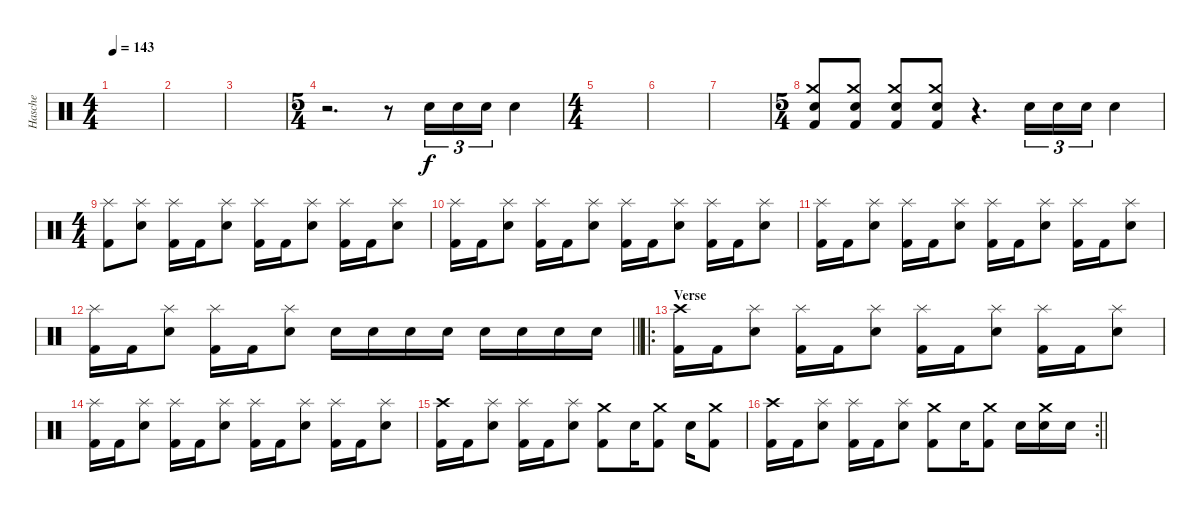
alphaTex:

\track ("Hasche" "Hasche") {instrument percussion}
\staff {score}
\articulation defaults
\ts (4 4)
\tempo 143
\clef neutral
\ks c
|
|
|
\ts (5 4)
r.2{d} r.8 "Snare (hit) 2".16{tu (3 2)} "Snare (hit) 2".16{tu (3 2)} "Snare (hit) 2".16{tu (3 2)} "Snare (hit) 2".4 |
\ts (4 4)
|
|
|
\ts (5 4)
("Crash medium (hit)" "Snare (hit) 2" "Kick (hit) 2").8 ("Crash medium (hit)" "Snare (hit) 2" "Kick (hit) 2").8 ("Crash medium (hit)" "Snare (hit) 2" "Kick (hit) 2").8 ("Crash medium (hit)" "Snare (hit) 2" "Kick (hit) 2").8 r.4{d} "Snare (hit) 2".16{tu (3 2)} "Snare (hit) 2".16{tu (3 2)} "Snare (hit) 2".16{tu (3 2)} "Snare (hit) 2".4 |
\ts (4 4)
("Splash (hit)" "Kick (hit) 2").8 ("Splash (hit)" "Snare (hit) 2").8 ("Splash (hit)" "Kick (hit) 2").16 "Kick (hit) 2".16 ("Splash (hit)" "Snare (hit) 2").8 ("Splash (hit)" "Kick (hit) 2").16 "Kick (hit) 2".16 ("Splash (hit)" "Snare (hit) 2").8 ("Splash (hit)" "Kick (hit) 2").16 "Kick (hit) 2".16 ("Splash (hit)" "Snare (hit) 2").8 |
("Splash (hit)" "Kick (hit) 2").16 "Kick (hit) 2".16 ("Splash (hit)" "Snare (hit) 2").8 ("Splash (hit)" "Kick (hit) 2").16 "Kick (hit) 2".16 ("Splash (hit)" "Snare (hit) 2").8 ("Splash (hit)" "Kick (hit) 2").16 "Kick (hit) 2".16 ("Splash (hit)" "Snare (hit) 2").8 ("Splash (hit)" "Kick (hit) 2").16 "Kick (hit) 2".16 ("Splash (hit)" "Snare (hit) 2").8 |
("Splash (hit)" "Kick (hit) 2").16 "Kick (hit) 2".16 ("Splash (hit)" "Snare (hit) 2").8 ("Splash (hit)" "Kick (hit) 2").16 "Kick (hit) 2".16 ("Splash (hit)" "Snare (hit) 2").8 ("Splash (hit)" "Kick (hit) 2").16 "Kick (hit) 2".16 ("Splash (hit)" "Snare (hit) 2").8 ("Splash (hit)" "Kick (hit) 2").16 "Kick (hit) 2".16 ("Splash (hit)" "Snare (hit) 2").8 |
\barLineRight lightlight
("Splash (hit)" "Kick (hit) 2").16 "Kick (hit) 2".16 ("Splash (hit)" "Snare (hit) 2").8 ("Splash (hit)" "Kick (hit) 2").16 "Kick (hit) 2".16 ("Splash (hit)" "Snare (hit) 2").8 "Snare (hit) 2".16 "Snare (hit) 2".16 "Snare (hit) 2".16 "Snare (hit) 2".16 "Snare (hit) 2".16 "Snare (hit) 2".16 "Snare (hit) 2".16 "Snare (hit) 2".16 |
\ro
\section ("" "Verse")
("Crash high (hit)" "Kick (hit) 2").16 "Kick (hit) 2".16 ("Splash (hit)" "Snare (hit) 2").8 ("Splash (hit)" "Kick (hit) 2").16 "Kick (hit) 2".16 ("Splash (hit)" "Snare (hit) 2").8 ("Splash (hit)" "Kick (hit) 2").16 "Kick (hit) 2".16 ("Splash (hit)" "Snare (hit) 2").8 ("Splash (hit)" "Kick (hit) 2").16 "Kick (hit) 2".16 ("Splash (hit)" "Snare (hit) 2").8 |
("Splash (hit)" "Kick (hit) 2").16 "Kick (hit) 2".16 ("Splash (hit)" "Snare (hit) 2").8 ("Splash (hit)" "Kick (hit) 2").16 "Kick (hit) 2".16 ("Splash (hit)" "Snare (hit) 2").8 ("Splash (hit)" "Kick (hit) 2").16 "Kick (hit) 2".16 ("Splash (hit)" "Snare (hit) 2").8 ("Splash (hit)" "Kick (hit) 2").16 "Kick (hit) 2".16 ("Splash (hit)" "Snare (hit) 2").8 |
("Crash high (hit)" "Kick (hit) 2").16 "Kick (hit) 2".16 ("Splash (hit)" "Snare (hit) 2").8 ("Splash (hit)" "Kick (hit) 2").16 "Kick (hit) 2".16 ("Splash (hit)" "Snare (hit) 2").8 ("Crash medium (hit)" "Kick (hit) 2").8 "Snare (hit) 2".16 ("Crash medium (hit)" "Kick (hit) 2").8 "Snare (hit) 2".16 ("Crash medium (hit)" "Kick (hit) 2").8 |
\rc 2
\barLineRight lightlight
("Crash high (hit)" "Kick (hit) 2").16 "Kick (hit) 2".16 ("Splash (hit)" "Snare (hit) 2").8 ("Splash (hit)" "Kick (hit) 2").16 "Kick (hit) 2".16 ("Splash (hit)" "Snare (hit) 2").8 ("Crash medium (hit)" "Kick (hit) 2").8 "Snare (hit) 2".16 ("Crash medium (hit)" "Kick (hit) 2").8 "Snare (hit) 2".16 ("Crash medium (hit)" "Snare (hit) 2").16 "Snare (hit) 2".16
